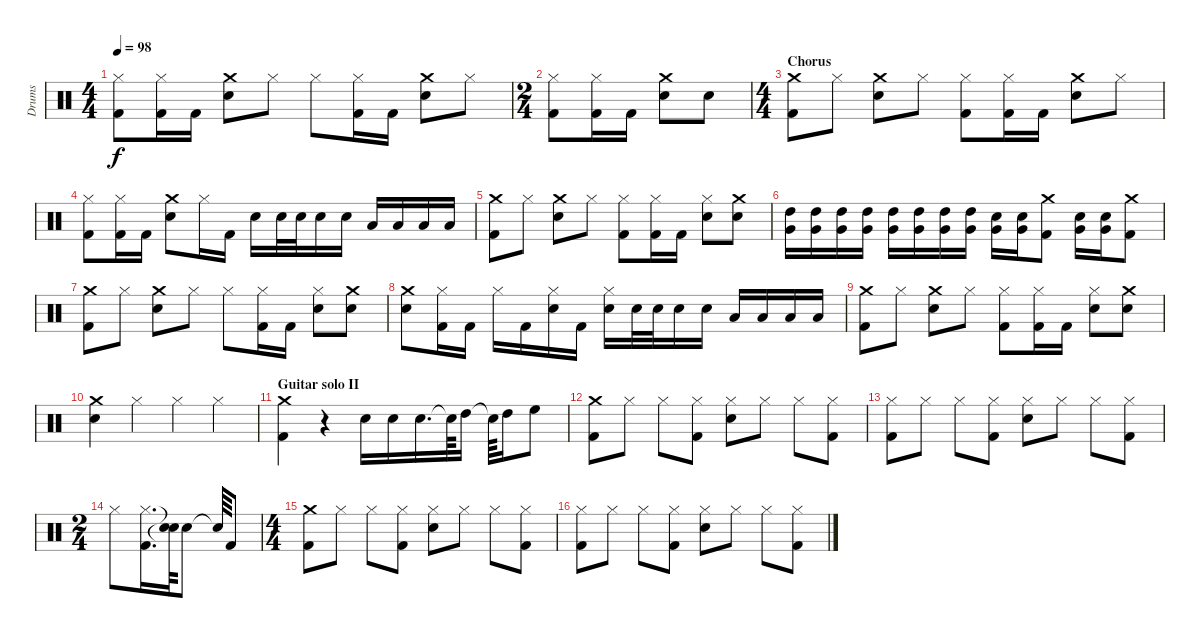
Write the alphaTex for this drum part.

\track ("Drums" "Drums") {instrument percussion}
\staff {score}
\articulation defaults
\ts (4 4)
\tempo 98
\clef neutral
\ks c
("Hi-Hat (closed)" "Kick (hit) 2").8{dy f} ("Hi-Hat (closed)" "Kick (hit) 2").16 "Kick (hit) 2".16 ("Crash medium (hit)" "Snare (hit) 2").8 "Hi-Hat (closed)".8 "Hi-Hat (closed)".8 ("Hi-Hat (closed)" "Kick (hit) 2").16 "Kick (hit) 2".16 ("Crash medium (hit)" "Snare (hit) 2").8 "Hi-Hat (closed)".8 |
\ts (2 4)
("Hi-Hat (closed)" "Kick (hit) 2").8 ("Hi-Hat (closed)" "Kick (hit) 2").16 "Kick (hit) 2".16 ("Crash medium (hit)" "Snare (hit) 2").8 "Snare (hit) 2".8 |
\ts (4 4)
\section ("" "Chorus")
("Crash medium (hit)" "Kick (hit) 2").8 "Hi-Hat (closed)".8 ("Crash medium (hit)" "Snare (hit) 2").8 "Hi-Hat (closed)".8 ("Kick (hit) 2" "Hi-Hat (closed)").8 ("Kick (hit) 2" "Hi-Hat (closed)").16 "Kick (hit) 2".16 ("Crash medium (hit)" "Snare (hit) 2").8 "Hi-Hat (closed)".8 |
("Hi-Hat (closed)" "Kick (hit) 2").8 ("Hi-Hat (closed)" "Kick (hit) 2").16 "Kick (hit) 2".16 ("Crash medium (hit)" "Snare (hit) 2").8 "Hi-Hat (closed)".16 "Kick (hit) 2".16 "Snare (hit) 2".16 "Snare (hit) 2".32 "Snare (hit) 2".32 "Snare (hit) 2".16 "Snare (hit) 2".16 "Low Tom (hit)".16 "Low Tom (hit)".16 "Low Tom (hit)".16 "Low Tom (hit)".16 |
("Crash medium (hit)" "Kick (hit) 2").8 "Hi-Hat (closed)".8 ("Crash medium (hit)" "Snare (hit) 2").8 "Hi-Hat (closed)".8 ("Hi-Hat (closed)" "Kick (hit) 2").8 ("Hi-Hat (closed)" "Kick (hit) 2").16 "Kick (hit) 2".16 ("Snare (hit) 2" "Hi-Hat (closed)").8 ("Crash medium (hit)" "Snare (hit) 2").8 |
("High Tom (hit)" "Very Low Tom (hit)").16 ("High Tom (hit)" "Very Low Tom (hit)").16 ("High Tom (hit)" "Very Low Tom (hit)").16 ("High Tom (hit)" "Very Low Tom (hit)").16 ("High Tom (hit)" "Very Low Tom (hit)").16 ("High Tom (hit)" "Very Low Tom (hit)").16 ("High Tom (hit)" "Very Low Tom (hit)").16 ("High Tom (hit)" "Very Low Tom (hit)").16 ("Snare (hit) 2" "Very Low Tom (hit)").16 ("Snare (hit) 2" "Very Low Tom (hit)").16 ("Kick (hit) 2" "Crash medium (hit)").8 ("Snare (hit) 2" "Very Low Tom (hit)").16 ("Snare (hit) 2" "Very Low Tom (hit)").16 ("Crash medium (hit)" "Kick (hit) 2").8 |
("Kick (hit) 2" "Crash medium (hit)").8 "Hi-Hat (closed)".8 ("Crash medium (hit)" "Snare (hit) 2").8 "Hi-Hat (closed)".8 "Hi-Hat (closed)".8 ("Hi-Hat (closed)" "Kick (hit) 2").16 "Kick (hit) 2".16 ("Snare (hit) 2" "Hi-Hat (closed)").8 ("Crash medium (hit)" "Snare (hit) 2").8 |
("Snare (hit) 2" "Crash medium (hit)").8 ("Hi-Hat (closed)" "Kick (hit) 2").16 "Kick (hit) 2".16 "Hi-Hat (closed)".16 "Kick (hit) 2".16 ("Snare (hit) 2" "Hi-Hat (closed)").16 "Kick (hit) 2".16 ("Snare (hit) 2" "Hi-Hat (closed)").16 "Snare (hit) 2".32 "Snare (hit) 2".32 "Snare (hit) 2".16 "Snare (hit) 2".16 "Low Tom (hit)".16 "Low Tom (hit)".16 "Low Tom (hit)".16 "Low Tom (hit)".16 |
("Crash medium (hit)" "Kick (hit) 2").8 "Hi-Hat (closed)".8 ("Crash medium (hit)" "Snare (hit) 2").8 "Hi-Hat (closed)".8 ("Kick (hit) 2" "Hi-Hat (closed)").8 ("Kick (hit) 2" "Hi-Hat (closed)").16 "Kick (hit) 2".16 ("Snare (hit) 2" "Hi-Hat (closed)").8 ("Crash medium (hit)" "Snare (hit) 2").8 |
("Crash medium (hit)" "Snare (hit) 2").4 "Hi-Hat (closed)".4 "Hi-Hat (closed)".4 "Hi-Hat (closed)".4 |
\section ("" "Guitar solo II")
("Kick (hit) 2" "Crash medium (hit)").4 r.4 "Snare (hit) 2".16 "Snare (hit) 2".16 "Snare (hit) 2".16{d} "Snare (hit)"{t}.64 "High Tom (hit)".16 "Snare (hit)"{t}.64 "High Tom (hit)".16 "High Floor Tom (hit)".8 |
("Crash medium (hit)" "Kick (hit) 2").8 "Hi-Hat (closed)".8 "Hi-Hat (closed)".8 ("Kick (hit) 2" "Hi-Hat (closed)").8 ("Hi-Hat (closed)" "Snare (hit) 2").8 "Hi-Hat (closed)".8 "Hi-Hat (closed)".8 ("Kick (hit) 2" "Hi-Hat (closed)").8 |
("Hi-Hat (closed)" "Kick (hit) 2").8 "Hi-Hat (closed)".8 "Hi-Hat (closed)".8 ("Hi-Hat (closed)" "Kick (hit) 2").8 ("Snare (hit) 2" "Hi-Hat (closed)").8 "Hi-Hat (closed)".8 "Hi-Hat (closed)".8 ("Kick (hit) 2" "Hi-Hat (closed)").8 |
\ts (2 4)
"Hi-Hat (closed)".8 ("Kick (hit) 2" "Hi-Hat (closed)").16{d} ("Snare (hit)"{t} "Snare (hit)"{t}).64 "Snare (hit) 2".8 "Snare (hit)"{t}.64 "Kick (hit) 2".8 |
\ts (4 4)
("Crash medium (hit)" "Kick (hit) 2").8 "Hi-Hat (closed)".8 "Hi-Hat (closed)".8 ("Kick (hit) 2" "Hi-Hat (closed)").8 ("Hi-Hat (closed)" "Snare (hit) 2").8 "Hi-Hat (closed)".8 "Hi-Hat (closed)".8 ("Kick (hit) 2" "Hi-Hat (closed)").8 |
("Hi-Hat (closed)" "Kick (hit) 2").8 "Hi-Hat (closed)".8 "Hi-Hat (closed)".8 ("Hi-Hat (closed)" "Kick (hit) 2").8 ("Snare (hit) 2" "Hi-Hat (closed)").8 "Hi-Hat (closed)".8 "Hi-Hat (closed)".8 ("Kick (hit) 2" "Hi-Hat (closed)").8
